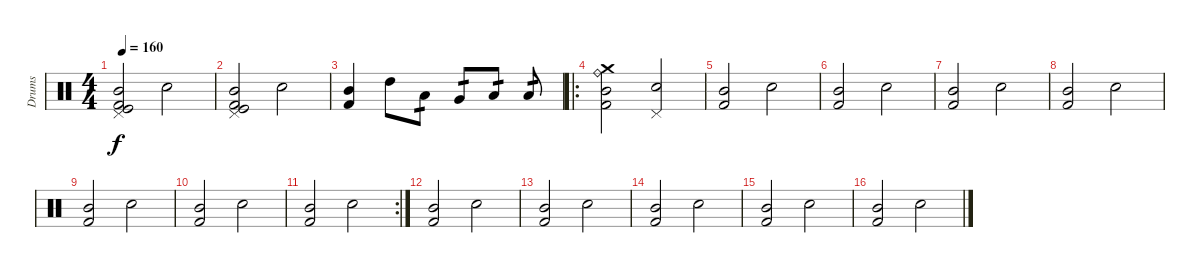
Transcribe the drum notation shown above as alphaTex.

\track ("Drums" "Drums") {instrument percussion}
\staff {score}
\articulation defaults
\ts (4 4)
\tempo 160
\clef neutral
\ks c
("Kick (hit)" "Kick (hit) 2" "Pedal Hi-Hat (hit)" "Mid Tom (hit)").2{dy f} "Electric Snare (hit)".2 |
("Kick (hit)" "Kick (hit) 2" "Pedal Hi-Hat (hit)" "Mid Tom (hit)").2 "Electric Snare (hit)".2 |
("Kick (hit) 2" "Mid Tom (hit)").4 "High Tom (hit)".8 "Low Tom (hit)".8{tp 1} "Very Low Tom (hit)".8{tp 1} "Low Tom (hit)".8{tp 1} "Low Floor Tom (hit)".8{tp 1} |
\ro
("Crash medium (hit)" "Kick (hit) 2" "Ride (bell)" "Mid Tom (hit)").2 ("Electric Snare (hit)" "Pedal Hi-Hat (hit)").2 |
("Kick (hit) 2" "Mid Tom (hit)").2 "Electric Snare (hit)".2 |
("Kick (hit) 2" "Mid Tom (hit)").2 "Electric Snare (hit)".2 |
("Kick (hit) 2" "Mid Tom (hit)").2 "Electric Snare (hit)".2 |
("Kick (hit) 2" "Mid Tom (hit)").2 "Electric Snare (hit)".2 |
("Kick (hit) 2" "Mid Tom (hit)").2 "Electric Snare (hit)".2 |
("Kick (hit) 2" "Mid Tom (hit)").2 "Electric Snare (hit)".2 |
\rc 2
("Kick (hit) 2" "Mid Tom (hit)").2 "Electric Snare (hit)".2 |
("Kick (hit) 2" "Mid Tom (hit)").2 "Electric Snare (hit)".2 |
("Kick (hit) 2" "Mid Tom (hit)").2 "Electric Snare (hit)".2 |
("Kick (hit) 2" "Mid Tom (hit)").2 "Electric Snare (hit)".2 |
("Kick (hit) 2" "Mid Tom (hit)").2 "Electric Snare (hit)".2 |
("Kick (hit) 2" "Mid Tom (hit)").2 "Electric Snare (hit)".2
